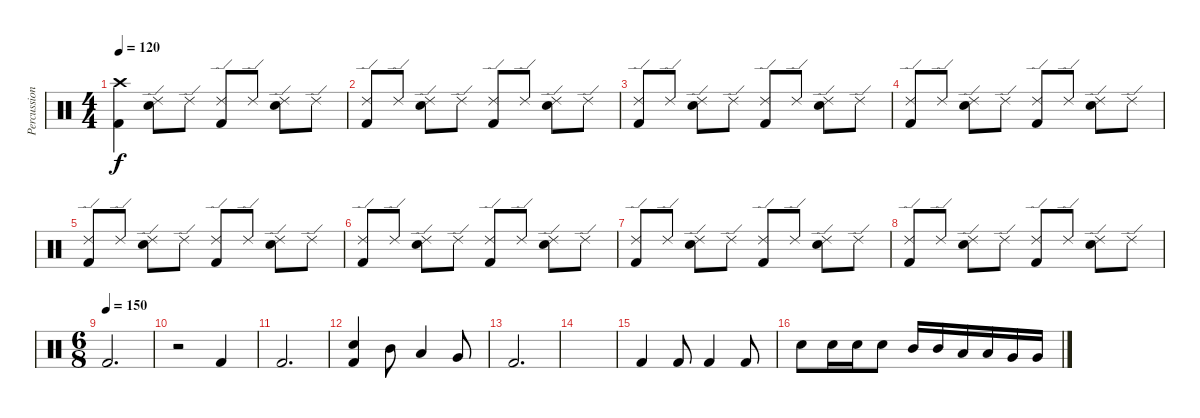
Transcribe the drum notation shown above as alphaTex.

\track ("Percussion" "Percussion") {instrument percussion}
\staff {score}
\articulation defaults
\ts (4 4)
\tempo 120
\clef neutral
\ks c
("Crash high (hit)" "Kick (hit) 2").4{dy f} ("Ride (edge) 2" "Electric Snare (hit)").8 "Ride (edge) 2".8 ("Ride (edge) 2" "Kick (hit) 2").8 "Ride (edge) 2".8 ("Ride (edge) 2" "Electric Snare (hit)").8 "Ride (edge) 2".8 |
("Ride (edge) 2" "Kick (hit) 2").8 "Ride (edge) 2".8 ("Ride (edge) 2" "Electric Snare (hit)").8 "Ride (edge) 2".8 ("Ride (edge) 2" "Kick (hit) 2").8 "Ride (edge) 2".8 ("Ride (edge) 2" "Electric Snare (hit)").8 "Ride (edge) 2".8 |
("Ride (edge) 2" "Kick (hit) 2").8 "Ride (edge) 2".8 ("Ride (edge) 2" "Electric Snare (hit)").8 "Ride (edge) 2".8 ("Ride (edge) 2" "Kick (hit) 2").8 "Ride (edge) 2".8 ("Ride (edge) 2" "Electric Snare (hit)").8 "Ride (edge) 2".8 |
("Ride (edge) 2" "Kick (hit) 2").8 "Ride (edge) 2".8 ("Ride (edge) 2" "Electric Snare (hit)").8 "Ride (edge) 2".8 ("Ride (edge) 2" "Kick (hit) 2").8 "Ride (edge) 2".8 ("Ride (edge) 2" "Electric Snare (hit)").8 "Ride (edge) 2".8 |
("Ride (edge) 2" "Kick (hit) 2").8 "Ride (edge) 2".8 ("Ride (edge) 2" "Electric Snare (hit)").8 "Ride (edge) 2".8 ("Ride (edge) 2" "Kick (hit) 2").8 "Ride (edge) 2".8 ("Ride (edge) 2" "Electric Snare (hit)").8 "Ride (edge) 2".8 |
("Ride (edge) 2" "Kick (hit) 2").8 "Ride (edge) 2".8 ("Ride (edge) 2" "Electric Snare (hit)").8 "Ride (edge) 2".8 ("Ride (edge) 2" "Kick (hit) 2").8 "Ride (edge) 2".8 ("Ride (edge) 2" "Electric Snare (hit)").8 "Ride (edge) 2".8 |
("Ride (edge) 2" "Kick (hit) 2").8 "Ride (edge) 2".8 ("Ride (edge) 2" "Electric Snare (hit)").8 "Ride (edge) 2".8 ("Ride (edge) 2" "Kick (hit) 2").8 "Ride (edge) 2".8 ("Ride (edge) 2" "Electric Snare (hit)").8 "Ride (edge) 2".8 |
("Ride (edge) 2" "Kick (hit) 2").8 "Ride (edge) 2".8 ("Ride (edge) 2" "Electric Snare (hit)").8 "Ride (edge) 2".8 ("Ride (edge) 2" "Kick (hit) 2").8 "Ride (edge) 2".8 ("Ride (edge) 2" "Electric Snare (hit)").8 "Ride (edge) 2".8 |
\ts (6 8)
\tempo (150)
"Kick (hit) 2".2{d} |
r.2 "Kick (hit) 2".4 |
"Kick (hit) 2".2{d} |
("Electric Snare (hit)" "Kick (hit) 2").4 "Mid Tom (hit)".8 "Low Tom (hit)".4 "Very Low Tom (hit)".8 |
"Kick (hit) 2".2{d} |
|
"Kick (hit) 2".4 "Kick (hit) 2".8 "Kick (hit) 2".4 "Kick (hit) 2".8 |
"Electric Snare (hit)".8 "Electric Snare (hit)".16 "Electric Snare (hit)".16 "Electric Snare (hit)".8 "Mid Tom (hit)".16 "Mid Tom (hit)".16 "Low Tom (hit)".16 "Low Tom (hit)".16 "Very Low Tom (hit)".16 "Very Low Tom (hit)".16
